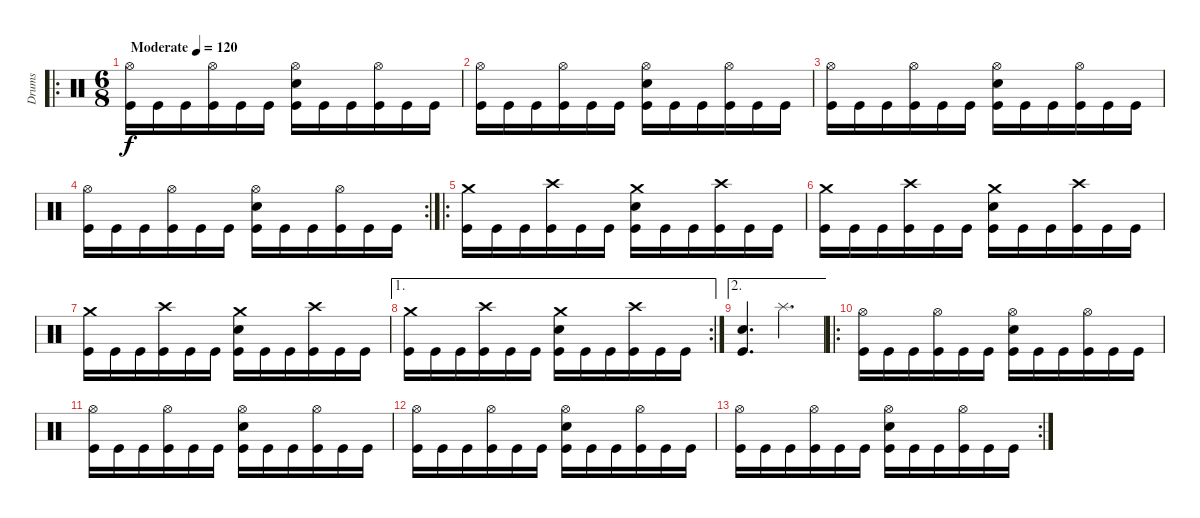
\track ("Drums" "Drums") {instrument percussion}
\staff {score}
\articulation defaults
\ro
\ts (6 8)
\tempo (120 "Moderate")
\clef neutral
\ks c
("Hi-Hat (open)" "Kick (hit)").16{dy f} "Kick (hit)".16 "Kick (hit)".16 ("Hi-Hat (open)" "Kick (hit)").16 "Kick (hit)".16 "Kick (hit)".16 ("Hi-Hat (open)" "Snare (hit) 2" "Kick (hit)").16 "Kick (hit)".16 "Kick (hit)".16 ("Hi-Hat (open)" "Kick (hit)").16 "Kick (hit)".16 "Kick (hit)".16 |
("Hi-Hat (open)" "Kick (hit)").16 "Kick (hit)".16 "Kick (hit)".16 ("Hi-Hat (open)" "Kick (hit)").16 "Kick (hit)".16 "Kick (hit)".16 ("Hi-Hat (open)" "Snare (hit) 2" "Kick (hit)").16 "Kick (hit)".16 "Kick (hit)".16 ("Hi-Hat (open)" "Kick (hit)").16 "Kick (hit)".16 "Kick (hit)".16 |
("Hi-Hat (open)" "Kick (hit)").16 "Kick (hit)".16 "Kick (hit)".16 ("Hi-Hat (open)" "Kick (hit)").16 "Kick (hit)".16 "Kick (hit)".16 ("Hi-Hat (open)" "Snare (hit) 2" "Kick (hit)").16 "Kick (hit)".16 "Kick (hit)".16 ("Hi-Hat (open)" "Kick (hit)").16 "Kick (hit)".16 "Kick (hit)".16 |
\rc 2
("Hi-Hat (open)" "Kick (hit)").16 "Kick (hit)".16 "Kick (hit)".16 ("Hi-Hat (open)" "Kick (hit)").16 "Kick (hit)".16 "Kick (hit)".16 ("Hi-Hat (open)" "Snare (hit) 2" "Kick (hit)").16 "Kick (hit)".16 "Kick (hit)".16 ("Hi-Hat (open)" "Kick (hit)").16 "Kick (hit)".16 "Kick (hit)".16 |
\ro
("Crash medium (hit)" "Kick (hit)").16 "Kick (hit)".16 "Kick (hit)".16 ("Crash high (hit)" "Kick (hit)").16 "Kick (hit)".16 "Kick (hit)".16 ("Crash medium (hit)" "Snare (hit) 2" "Kick (hit)").16 "Kick (hit)".16 "Kick (hit)".16 ("Crash high (hit)" "Kick (hit)").16 "Kick (hit)".16 "Kick (hit)".16 |
("Crash medium (hit)" "Kick (hit)").16 "Kick (hit)".16 "Kick (hit)".16 ("Crash high (hit)" "Kick (hit)").16 "Kick (hit)".16 "Kick (hit)".16 ("Crash medium (hit)" "Snare (hit) 2" "Kick (hit)").16 "Kick (hit)".16 "Kick (hit)".16 ("Crash high (hit)" "Kick (hit)").16 "Kick (hit)".16 "Kick (hit)".16 |
("Crash medium (hit)" "Kick (hit)").16 "Kick (hit)".16 "Kick (hit)".16 ("Crash high (hit)" "Kick (hit)").16 "Kick (hit)".16 "Kick (hit)".16 ("Crash medium (hit)" "Snare (hit) 2" "Kick (hit)").16 "Kick (hit)".16 "Kick (hit)".16 ("Crash high (hit)" "Kick (hit)").16 "Kick (hit)".16 "Kick (hit)".16 |
\ae 1
\rc 2
("Crash medium (hit)" "Kick (hit)").16 "Kick (hit)".16 "Kick (hit)".16 ("Crash high (hit)" "Kick (hit)").16 "Kick (hit)".16 "Kick (hit)".16 ("Crash medium (hit)" "Snare (hit) 2" "Kick (hit)").16 "Kick (hit)".16 "Kick (hit)".16 ("Crash high (hit)" "Kick (hit)").16 "Kick (hit)".16 "Kick (hit)".16 |
\ae 2
("Snare (hit) 2" "Kick (hit)").4{d} "Splash (hit)".4{d} |
\ro
("Hi-Hat (open)" "Kick (hit)").16 "Kick (hit)".16 "Kick (hit)".16 ("Hi-Hat (open)" "Kick (hit)").16 "Kick (hit)".16 "Kick (hit)".16 ("Hi-Hat (open)" "Snare (hit) 2" "Kick (hit)").16 "Kick (hit)".16 "Kick (hit)".16 ("Hi-Hat (open)" "Kick (hit)").16 "Kick (hit)".16 "Kick (hit)".16 |
("Hi-Hat (open)" "Kick (hit)").16 "Kick (hit)".16 "Kick (hit)".16 ("Hi-Hat (open)" "Kick (hit)").16 "Kick (hit)".16 "Kick (hit)".16 ("Hi-Hat (open)" "Snare (hit) 2" "Kick (hit)").16 "Kick (hit)".16 "Kick (hit)".16 ("Hi-Hat (open)" "Kick (hit)").16 "Kick (hit)".16 "Kick (hit)".16 |
("Hi-Hat (open)" "Kick (hit)").16 "Kick (hit)".16 "Kick (hit)".16 ("Hi-Hat (open)" "Kick (hit)").16 "Kick (hit)".16 "Kick (hit)".16 ("Hi-Hat (open)" "Snare (hit) 2" "Kick (hit)").16 "Kick (hit)".16 "Kick (hit)".16 ("Hi-Hat (open)" "Kick (hit)").16 "Kick (hit)".16 "Kick (hit)".16 |
\rc 2
("Hi-Hat (open)" "Kick (hit)").16 "Kick (hit)".16 "Kick (hit)".16 ("Hi-Hat (open)" "Kick (hit)").16 "Kick (hit)".16 "Kick (hit)".16 ("Hi-Hat (open)" "Snare (hit) 2" "Kick (hit)").16 "Kick (hit)".16 "Kick (hit)".16 ("Hi-Hat (open)" "Kick (hit)").16 "Kick (hit)".16 "Kick (hit)".16
